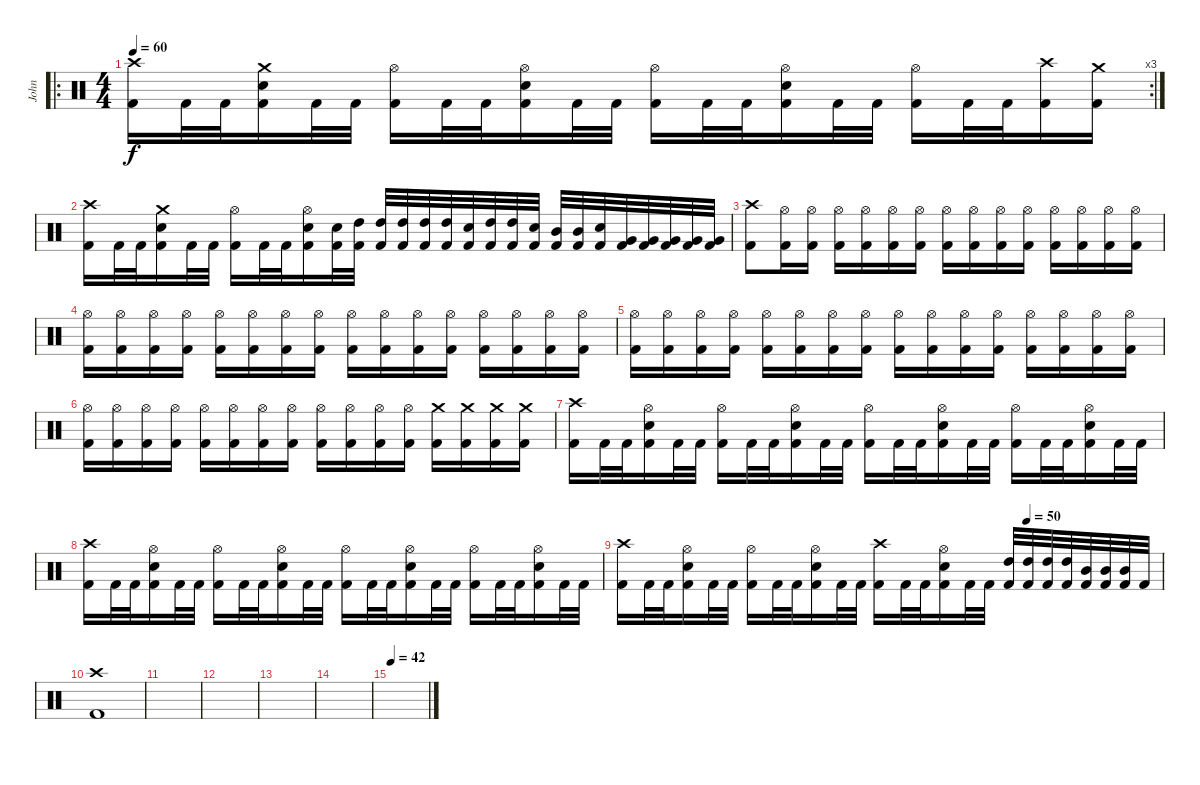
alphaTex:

\track ("John" "John") {instrument percussion}
\staff {score}
\articulation defaults
\ro
\rc 3
\ts (4 4)
\tempo 60
\clef neutral
\ks c
("Crash high (hit)" "Kick (hit) 2").16{dy f} "Kick (hit) 2".32 "Kick (hit) 2".32 ("Crash medium (hit)" "Snare (hit) 2" "Kick (hit) 2").16 "Kick (hit) 2".32 "Kick (hit) 2".32 ("Hi-Hat (open)" "Kick (hit) 2").16 "Kick (hit) 2".32 "Kick (hit) 2".32 ("Hi-Hat (open)" "Snare (hit) 2" "Kick (hit) 2").16 "Kick (hit) 2".32 "Kick (hit) 2".32 ("Hi-Hat (open)" "Kick (hit) 2").16 "Kick (hit) 2".32 "Kick (hit) 2".32 ("Hi-Hat (open)" "Snare (hit) 2" "Kick (hit) 2").16 "Kick (hit) 2".32 "Kick (hit) 2".32 ("Hi-Hat (open)" "Kick (hit) 2").16 "Kick (hit) 2".32 "Kick (hit) 2".32 ("Crash high (hit)" "Kick (hit) 2").16 ("Crash medium (hit)" "Kick (hit) 2").16 |
("Crash high (hit)" "Kick (hit) 2").16 "Kick (hit) 2".32 "Kick (hit) 2".32 ("Crash medium (hit)" "Snare (hit) 2" "Kick (hit) 2").16 "Kick (hit) 2".32 "Kick (hit) 2".32 ("Hi-Hat (open)" "Kick (hit) 2").16 "Kick (hit) 2".32 "Kick (hit) 2".32 ("Hi-Hat (open)" "Snare (hit) 2" "Kick (hit) 2").16 ("Snare (hit) 2" "Kick (hit) 2").32 ("High Tom (hit)" "Kick (hit) 2").32 ("High Tom (hit)" "Kick (hit) 2").32 ("High Tom (hit)" "Kick (hit) 2").32 ("High Tom (hit)" "Kick (hit) 2").32 ("High Tom (hit)" "Kick (hit) 2").32 ("Snare (hit) 2" "Kick (hit) 2").32 ("High Tom (hit)" "Kick (hit) 2").32 ("High Tom (hit)" "Kick (hit) 2").32 ("Snare (hit) 2" "Kick (hit) 2").32 ("Mid Tom (hit)" "Kick (hit) 2").32 ("Mid Tom (hit)" "Kick (hit) 2").32 ("Snare (hit) 2" "Kick (hit) 2").32 ("Very Low Tom (hit)" "Kick (hit) 2").32 ("Very Low Tom (hit)" "Kick (hit) 2").32 ("Very Low Tom (hit)" "Kick (hit) 2").32 ("Very Low Tom (hit)" "Kick (hit) 2").32 ("Very Low Tom (hit)" "Kick (hit) 2").32 |
("Crash high (hit)" "Kick (hit) 2").8 ("Hi-Hat (open)" "Kick (hit) 2").16 ("Hi-Hat (open)" "Kick (hit) 2").16 ("Hi-Hat (open)" "Kick (hit) 2").16 ("Hi-Hat (open)" "Kick (hit) 2").16 ("Hi-Hat (open)" "Kick (hit) 2").16 ("Hi-Hat (open)" "Kick (hit) 2").16 ("Hi-Hat (open)" "Kick (hit) 2").16 ("Hi-Hat (open)" "Kick (hit) 2").16 ("Hi-Hat (open)" "Kick (hit) 2").16 ("Hi-Hat (open)" "Kick (hit) 2").16 ("Hi-Hat (open)" "Kick (hit) 2").16 ("Hi-Hat (open)" "Kick (hit) 2").16 ("Hi-Hat (open)" "Kick (hit) 2").16 ("Hi-Hat (open)" "Kick (hit) 2").16 |
("Hi-Hat (open)" "Kick (hit) 2").16 ("Hi-Hat (open)" "Kick (hit) 2").16 ("Hi-Hat (open)" "Kick (hit) 2").16 ("Hi-Hat (open)" "Kick (hit) 2").16 ("Hi-Hat (open)" "Kick (hit) 2").16 ("Hi-Hat (open)" "Kick (hit) 2").16 ("Hi-Hat (open)" "Kick (hit) 2").16 ("Hi-Hat (open)" "Kick (hit) 2").16 ("Hi-Hat (open)" "Kick (hit) 2").16 ("Hi-Hat (open)" "Kick (hit) 2").16 ("Hi-Hat (open)" "Kick (hit) 2").16 ("Hi-Hat (open)" "Kick (hit) 2").16 ("Hi-Hat (open)" "Kick (hit) 2").16 ("Hi-Hat (open)" "Kick (hit) 2").16 ("Hi-Hat (open)" "Kick (hit) 2").16 ("Hi-Hat (open)" "Kick (hit) 2").16 |
("Hi-Hat (open)" "Kick (hit) 2").16 ("Hi-Hat (open)" "Kick (hit) 2").16 ("Hi-Hat (open)" "Kick (hit) 2").16 ("Hi-Hat (open)" "Kick (hit) 2").16 ("Hi-Hat (open)" "Kick (hit) 2").16 ("Hi-Hat (open)" "Kick (hit) 2").16 ("Hi-Hat (open)" "Kick (hit) 2").16 ("Hi-Hat (open)" "Kick (hit) 2").16 ("Hi-Hat (open)" "Kick (hit) 2").16 ("Hi-Hat (open)" "Kick (hit) 2").16 ("Hi-Hat (open)" "Kick (hit) 2").16 ("Hi-Hat (open)" "Kick (hit) 2").16 ("Hi-Hat (open)" "Kick (hit) 2").16 ("Hi-Hat (open)" "Kick (hit) 2").16 ("Hi-Hat (open)" "Kick (hit) 2").16 ("Hi-Hat (open)" "Kick (hit) 2").16 |
("Hi-Hat (open)" "Kick (hit) 2").16 ("Hi-Hat (open)" "Kick (hit) 2").16 ("Hi-Hat (open)" "Kick (hit) 2").16 ("Hi-Hat (open)" "Kick (hit) 2").16 ("Hi-Hat (open)" "Kick (hit) 2").16 ("Hi-Hat (open)" "Kick (hit) 2").16 ("Hi-Hat (open)" "Kick (hit) 2").16 ("Hi-Hat (open)" "Kick (hit) 2").16 ("Hi-Hat (open)" "Kick (hit) 2").16 ("Hi-Hat (open)" "Kick (hit) 2").16 ("Hi-Hat (open)" "Kick (hit) 2").16 ("Hi-Hat (open)" "Kick (hit) 2").16 ("Crash medium (hit)" "Kick (hit) 2").16 ("Crash medium (hit)" "Kick (hit) 2").16 ("Crash medium (hit)" "Kick (hit) 2").16 ("Crash medium (hit)" "Kick (hit) 2").16 |
("Crash high (hit)" "Kick (hit) 2").16 "Kick (hit) 2".32 "Kick (hit) 2".32 ("Hi-Hat (open)" "Snare (hit) 2" "Kick (hit) 2").16 "Kick (hit) 2".32 "Kick (hit) 2".32 ("Hi-Hat (open)" "Kick (hit) 2").16 "Kick (hit) 2".32 "Kick (hit) 2".32 ("Hi-Hat (open)" "Snare (hit) 2" "Kick (hit) 2").16 "Kick (hit) 2".32 "Kick (hit) 2".32 ("Hi-Hat (open)" "Kick (hit) 2").16 "Kick (hit) 2".32 "Kick (hit) 2".32 ("Hi-Hat (open)" "Snare (hit) 2" "Kick (hit) 2").16 "Kick (hit) 2".32 "Kick (hit) 2".32 ("Hi-Hat (open)" "Kick (hit) 2").16 "Kick (hit) 2".32 "Kick (hit) 2".32 ("Hi-Hat (open)" "Snare (hit) 2" "Kick (hit) 2").16 "Kick (hit) 2".32 "Kick (hit) 2".32 |
("Crash high (hit)" "Kick (hit) 2").16 "Kick (hit) 2".32 "Kick (hit) 2".32 ("Hi-Hat (open)" "Snare (hit) 2" "Kick (hit) 2").16 "Kick (hit) 2".32 "Kick (hit) 2".32 ("Hi-Hat (open)" "Kick (hit) 2").16 "Kick (hit) 2".32 "Kick (hit) 2".32 ("Hi-Hat (open)" "Snare (hit) 2" "Kick (hit) 2").16 "Kick (hit) 2".32 "Kick (hit) 2".32 ("Hi-Hat (open)" "Kick (hit) 2").16 "Kick (hit) 2".32 "Kick (hit) 2".32 ("Hi-Hat (open)" "Snare (hit) 2" "Kick (hit) 2").16 "Kick (hit) 2".32 "Kick (hit) 2".32 ("Hi-Hat (open)" "Kick (hit) 2").16 "Kick (hit) 2".32 "Kick (hit) 2".32 ("Hi-Hat (open)" "Snare (hit) 2" "Kick (hit) 2").16 "Kick (hit) 2".32 "Kick (hit) 2".32 |
\tempo (50 0.75)
("Crash high (hit)" "Kick (hit) 2").16 "Kick (hit) 2".32 "Kick (hit) 2".32 ("Hi-Hat (open)" "Snare (hit) 2" "Kick (hit) 2").16 "Kick (hit) 2".32 "Kick (hit) 2".32 ("Hi-Hat (open)" "Kick (hit) 2").16 "Kick (hit) 2".32 "Kick (hit) 2".32 ("Hi-Hat (open)" "Snare (hit) 2" "Kick (hit) 2").16 "Kick (hit) 2".32 "Kick (hit) 2".32 ("Crash high (hit)" "Kick (hit) 2").16 "Kick (hit) 2".32 "Kick (hit) 2".32 ("Hi-Hat (open)" "Snare (hit) 2" "Kick (hit) 2").16 "Kick (hit) 2".32 "Kick (hit) 2".32 ("High Tom (hit)" "Kick (hit) 2").32 ("High Tom (hit)" "Kick (hit) 2").32 ("High Tom (hit)" "Kick (hit) 2").32 ("High Tom (hit)" "Kick (hit) 2").32 ("Mid Tom (hit)" "Kick (hit) 2").32 ("Mid Tom (hit)" "Kick (hit) 2").32 ("Mid Tom (hit)" "Kick (hit) 2").32 "Kick (hit) 2".32 |
("Crash high (hit)" "Kick (hit) 2").1 |
|
|
|
|
\tempo 42
